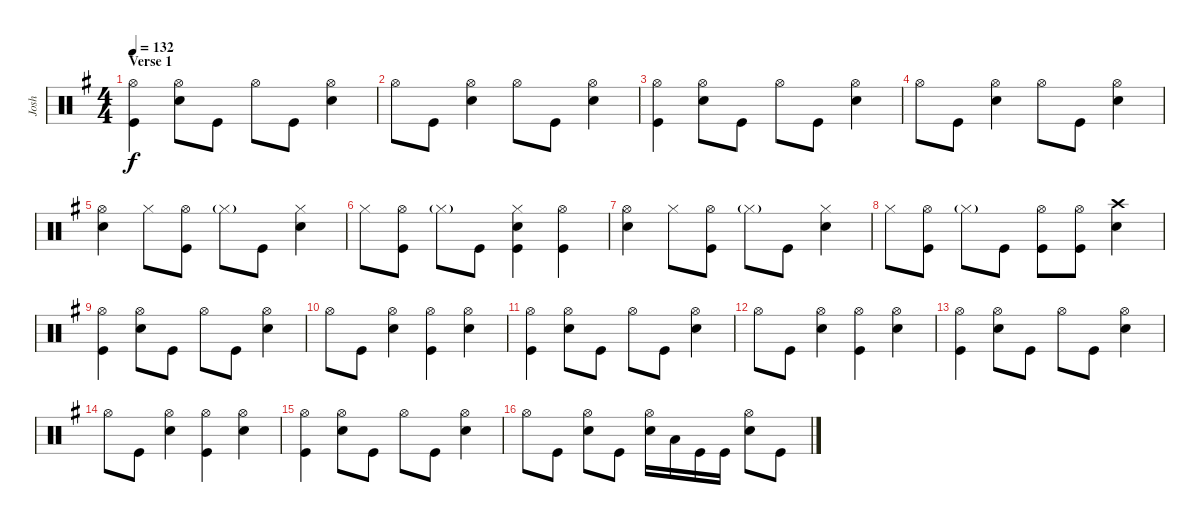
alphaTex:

\track ("Josh" "Josh") {instrument percussion}
\staff {score}
\articulation defaults
\ts (4 4)
\section ("" "Verse 1")
\tempo 132
\clef neutral
\ks g
("Kick (hit)" "Hi-Hat (open)").4{dy f} ("Snare (hit) 2" "Hi-Hat (open)").8 "Kick (hit)".8 "Hi-Hat (open)".8 "Kick (hit)".8 ("Hi-Hat (open)" "Snare (hit) 2").4 |
"Hi-Hat (open)".8 "Kick (hit)".8 ("Snare (hit) 2" "Hi-Hat (open)").4 "Hi-Hat (open)".8 "Kick (hit)".8 ("Snare (hit) 2" "Hi-Hat (open)").4 |
("Kick (hit)" "Hi-Hat (open)").4 ("Snare (hit) 2" "Hi-Hat (open)").8 "Kick (hit)".8 "Hi-Hat (open)".8 "Kick (hit)".8 ("Hi-Hat (open)" "Snare (hit) 2").4 |
"Hi-Hat (open)".8 "Kick (hit)".8 ("Snare (hit) 2" "Hi-Hat (open)").4 "Hi-Hat (open)".8 "Kick (hit)".8 ("Snare (hit) 2" "Hi-Hat (open)").4 |
("Hi-Hat (open)" "Snare (hit) 2").4 "Hi-Hat (closed)".8 ("Kick (hit)" "Hi-Hat (open)").8 "Hi-Hat (closed)"{g}.8 "Kick (hit)".8 ("Hi-Hat (closed)" "Snare (hit) 2").4 |
"Hi-Hat (closed)".8 ("Kick (hit)" "Hi-Hat (open)").8 "Hi-Hat (closed)"{g}.8 "Kick (hit)".8 ("Kick (hit)" "Hi-Hat (closed)" "Snare (hit) 2").4 ("Hi-Hat (open)" "Kick (hit)").4 |
("Hi-Hat (open)" "Snare (hit) 2").4 "Hi-Hat (closed)".8 ("Kick (hit)" "Hi-Hat (open)").8 "Hi-Hat (closed)"{g}.8 "Kick (hit)".8 ("Hi-Hat (closed)" "Snare (hit) 2").4 |
"Hi-Hat (closed)".8 ("Kick (hit)" "Hi-Hat (open)").8 "Hi-Hat (closed)"{g}.8 "Kick (hit)".8 ("Kick (hit)" "Hi-Hat (open)").8 ("Kick (hit)" "Hi-Hat (open)").8 ("Snare (hit) 2" "Crash high (hit)").4 |
("Kick (hit)" "Hi-Hat (open)").4 ("Snare (hit) 2" "Hi-Hat (open)").8 "Kick (hit)".8 "Hi-Hat (open)".8 "Kick (hit)".8 ("Hi-Hat (open)" "Snare (hit) 2").4 |
"Hi-Hat (open)".8 "Kick (hit)".8 ("Snare (hit) 2" "Hi-Hat (open)").4 ("Kick (hit)" "Hi-Hat (open)").4 ("Snare (hit) 2" "Hi-Hat (open)").4 |
("Kick (hit)" "Hi-Hat (open)").4 ("Snare (hit) 2" "Hi-Hat (open)").8 "Kick (hit)".8 "Hi-Hat (open)".8 "Kick (hit)".8 ("Hi-Hat (open)" "Snare (hit) 2").4 |
"Hi-Hat (open)".8 "Kick (hit)".8 ("Snare (hit) 2" "Hi-Hat (open)").4 ("Kick (hit)" "Hi-Hat (open)").4 ("Snare (hit) 2" "Hi-Hat (open)").4 |
("Kick (hit)" "Hi-Hat (open)").4 ("Snare (hit) 2" "Hi-Hat (open)").8 "Kick (hit)".8 "Hi-Hat (open)".8 "Kick (hit)".8 ("Hi-Hat (open)" "Snare (hit) 2").4 |
"Hi-Hat (open)".8 "Kick (hit)".8 ("Snare (hit) 2" "Hi-Hat (open)").4 ("Kick (hit)" "Hi-Hat (open)").4 ("Snare (hit) 2" "Hi-Hat (open)").4 |
("Kick (hit)" "Hi-Hat (open)").4 ("Snare (hit) 2" "Hi-Hat (open)").8 "Kick (hit)".8 "Hi-Hat (open)".8 "Kick (hit)".8 ("Hi-Hat (open)" "Snare (hit) 2").4 |
"Hi-Hat (open)".8 "Kick (hit)".8 ("Snare (hit) 2" "Hi-Hat (open)").8 "Kick (hit)".8 ("Hi-Hat (open)" "Snare (hit) 2").16 "Low Tom (hit)".16 "Kick (hit)".16 "Kick (hit)".16 ("Snare (hit) 2" "Hi-Hat (open)").8 "Kick (hit)".8
